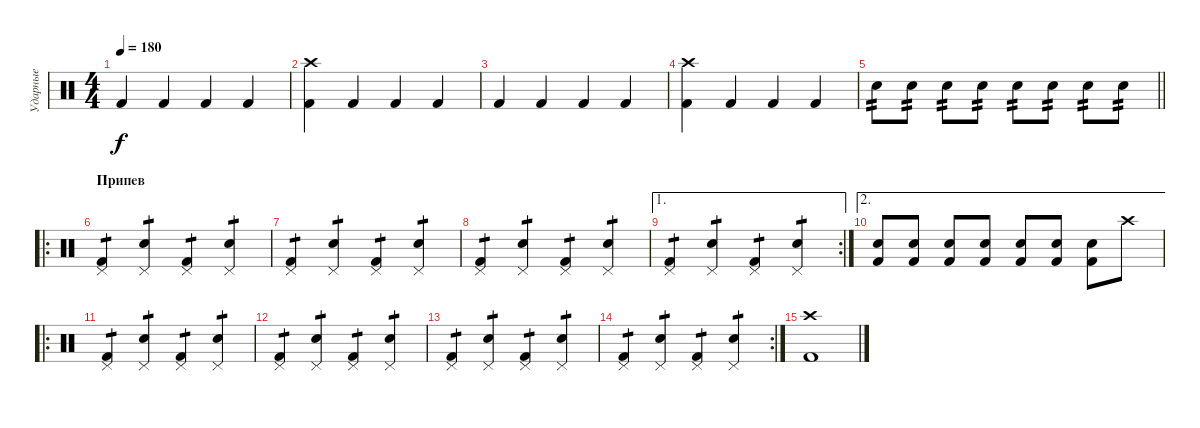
\track ("Ударные" "Ударные") {instrument percussion}
\staff {score}
\articulation defaults
\ts (4 4)
\tempo 180
\clef neutral
\ks c "Kick (hit) 2".4{dy f} "Kick (hit) 2".4 "Kick (hit) 2".4 "Kick (hit) 2".4
|
("Crash high (hit)" "Kick (hit) 2").4 "Kick (hit) 2".4 "Kick (hit) 2".4 "Kick (hit) 2".4 |
"Kick (hit) 2".4 "Kick (hit) 2".4 "Kick (hit) 2".4 "Kick (hit) 2".4 |
("Crash high (hit)" "Kick (hit) 2").4 "Kick (hit) 2".4 "Kick (hit) 2".4 "Kick (hit) 2".4 |
\barLineRight lightlight "Snare (hit) 2".8{tp 2} "Snare (hit) 2".8{tp 2} "Snare (hit) 2".8{tp 2} "Snare (hit) 2".8{tp 2} "Snare (hit) 2".8{tp 2} "Snare (hit) 2".8{tp 2} "Snare (hit) 2".8{tp 2} "Snare (hit) 2".8{tp 2}
|
\ro
\section ("" "Припев")
("Pedal Hi-Hat (hit)" "Kick (hit) 2").4{tp 1} ("Snare (hit) 2" "Pedal Hi-Hat (hit)").4{tp 1} ("Pedal Hi-Hat (hit)" "Kick (hit) 2").4{tp 1} ("Snare (hit) 2" "Pedal Hi-Hat (hit)").4{tp 1} |
("Pedal Hi-Hat (hit)" "Kick (hit) 2").4{tp 1} ("Snare (hit) 2" "Pedal Hi-Hat (hit)").4{tp 1} ("Pedal Hi-Hat (hit)" "Kick (hit) 2").4{tp 1} ("Snare (hit) 2" "Pedal Hi-Hat (hit)").4{tp 1} |
("Pedal Hi-Hat (hit)" "Kick (hit) 2").4{tp 1} ("Snare (hit) 2" "Pedal Hi-Hat (hit)").4{tp 1} ("Pedal Hi-Hat (hit)" "Kick (hit) 2").4{tp 1} ("Snare (hit) 2" "Pedal Hi-Hat (hit)").4{tp 1} |
\ae 1
\rc 2
("Pedal Hi-Hat (hit)" "Kick (hit) 2").4{tp 1} ("Snare (hit) 2" "Pedal Hi-Hat (hit)").4{tp 1} ("Pedal Hi-Hat (hit)" "Kick (hit) 2").4{tp 1} ("Snare (hit) 2" "Pedal Hi-Hat (hit)").4{tp 1} |
\ae 2
("Electric Snare (hit)" "Kick (hit) 2").8 ("Electric Snare (hit)" "Kick (hit) 2").8 ("Electric Snare (hit)" "Kick (hit) 2").8 ("Electric Snare (hit)" "Kick (hit) 2").8 ("Electric Snare (hit)" "Kick (hit) 2").8 ("Electric Snare (hit)" "Kick (hit) 2").8 ("Electric Snare (hit)" "Kick (hit) 2").8 "Crash high (hit)".8 |
\ro
("Pedal Hi-Hat (hit)" "Kick (hit) 2").4{tp 1} ("Snare (hit) 2" "Pedal Hi-Hat (hit)").4{tp 1} ("Pedal Hi-Hat (hit)" "Kick (hit) 2").4{tp 1} ("Snare (hit) 2" "Pedal Hi-Hat (hit)").4{tp 1} |
("Pedal Hi-Hat (hit)" "Kick (hit) 2").4{tp 1} ("Snare (hit) 2" "Pedal Hi-Hat (hit)").4{tp 1} ("Pedal Hi-Hat (hit)" "Kick (hit) 2").4{tp 1} ("Snare (hit) 2" "Pedal Hi-Hat (hit)").4{tp 1} |
("Pedal Hi-Hat (hit)" "Kick (hit) 2").4{tp 1} ("Snare (hit) 2" "Pedal Hi-Hat (hit)").4{tp 1} ("Pedal Hi-Hat (hit)" "Kick (hit) 2").4{tp 1} ("Snare (hit) 2" "Pedal Hi-Hat (hit)").4{tp 1} |
\rc 2
("Pedal Hi-Hat (hit)" "Kick (hit) 2").4{tp 1} ("Snare (hit) 2" "Pedal Hi-Hat (hit)").4{tp 1} ("Pedal Hi-Hat (hit)" "Kick (hit) 2").4{tp 1} ("Snare (hit) 2" "Pedal Hi-Hat (hit)").4{tp 1} |
("Crash high (hit)" "Kick (hit) 2").1
